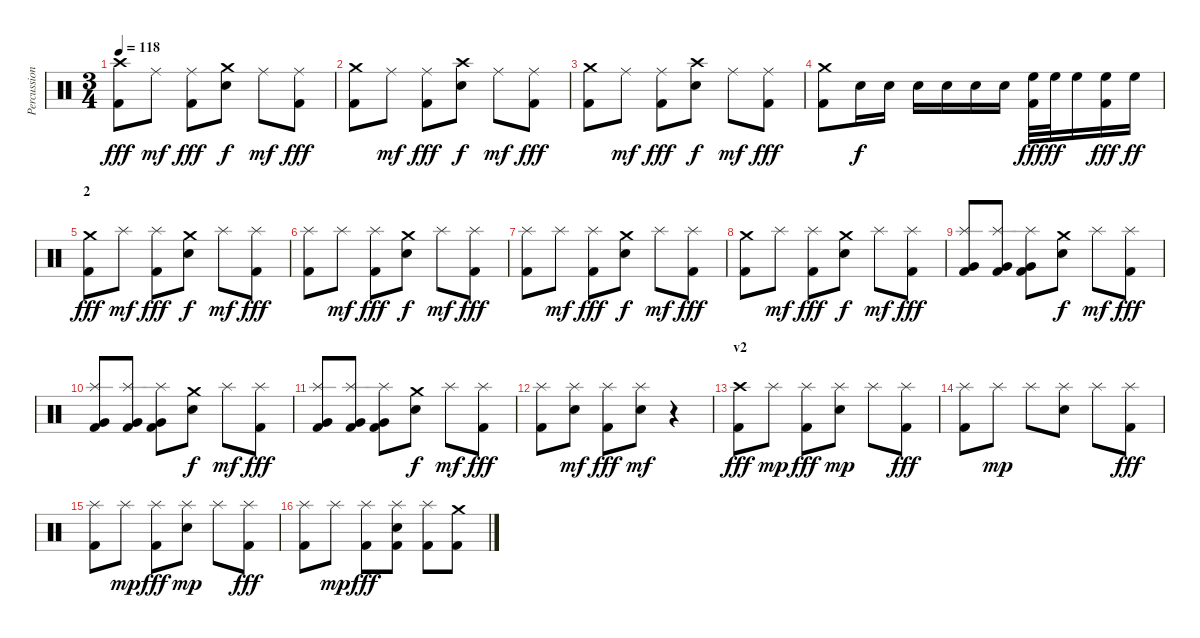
\track ("Percussion" "Percussion") {instrument percussion}
\staff {score}
\articulation defaults
\ts (3 4)
\tempo 118
\clef neutral
\ks c
("Crash high (hit)" "Kick (hit) 2").8{dy fff} "Ride (middle)".8{dy mf} ("Ride (middle)" "Kick (hit) 2").8{dy fff} ("Crash medium (hit)" "Electric Snare (hit)").8{dy f} "Ride (middle)".8{dy mf} ("Ride (middle)" "Kick (hit) 2").8{dy fff} |
("Crash medium (hit)" "Kick (hit) 2").8 "Ride (middle)".8{dy mf} ("Ride (middle)" "Kick (hit) 2").8{dy fff} ("Crash high (hit)" "Electric Snare (hit)").8{dy f} "Ride (middle)".8{dy mf} ("Ride (middle)" "Kick (hit) 2").8{dy fff} |
("Crash medium (hit)" "Kick (hit) 2").8 "Ride (middle)".8{dy mf} ("Ride (middle)" "Kick (hit) 2").8{dy fff} ("Crash high (hit)" "Electric Snare (hit)").8{dy f} "Ride (middle)".8{dy mf} ("Ride (middle)" "Kick (hit) 2").8{dy fff} |
("Crash medium (hit)" "Kick (hit) 2").8 "Electric Snare (hit)".16{dy f} "Electric Snare (hit)".16 "Electric Snare (hit)".16 "Electric Snare (hit)".16 "Electric Snare (hit)".16 "Electric Snare (hit)".16 ("High Floor Tom (hit)" "Kick (hit) 2").32{dy fff} "High Floor Tom (hit)".32{dy ff} "High Floor Tom (hit)".16 ("High Floor Tom (hit)" "Kick (hit) 2").16{dy fff} "High Floor Tom (hit)".16{dy ff} |
\section ("" "2")
("Crash medium (hit)" "Kick (hit) 2").8{dy fff} "Splash (hit)".8{dy mf} ("Splash (hit)" "Kick (hit) 2").8{dy fff} ("Crash medium (hit)" "Electric Snare (hit)").8{dy f} "Splash (hit)".8{dy mf} ("Splash (hit)" "Kick (hit) 2").8{dy fff} |
("Splash (hit)" "Kick (hit) 2").8 "Splash (hit)".8{dy mf} ("Splash (hit)" "Kick (hit) 2").8{dy fff} ("Crash medium (hit)" "Electric Snare (hit)").8{dy f} "Splash (hit)".8{dy mf} ("Splash (hit)" "Kick (hit) 2").8{dy fff} |
("Splash (hit)" "Kick (hit) 2").8 "Splash (hit)".8{dy mf} ("Splash (hit)" "Kick (hit) 2").8{dy fff} ("Crash medium (hit)" "Electric Snare (hit)").8{dy f} "Splash (hit)".8{dy mf} ("Splash (hit)" "Kick (hit) 2").8{dy fff} |
("Crash medium (hit)" "Kick (hit) 2").8 "Splash (hit)".8{dy mf} ("Splash (hit)" "Kick (hit) 2").8{dy fff} ("Crash medium (hit)" "Electric Snare (hit)").8{dy f} "Splash (hit)".8{dy mf} ("Splash (hit)" "Kick (hit) 2").8{dy fff} |
("Splash (hit)" "Very Low Tom (hit)" "Kick (hit) 2").8 ("Splash (hit)" "Very Low Tom (hit)" "Kick (hit) 2").8 ("Splash (hit)" "Very Low Tom (hit)" "Kick (hit) 2").8 ("Crash medium (hit)" "Electric Snare (hit)").8{dy f} "Splash (hit)".8{dy mf} ("Splash (hit)" "Kick (hit) 2").8{dy fff} |
("Splash (hit)" "Very Low Tom (hit)" "Kick (hit) 2").8 ("Splash (hit)" "Very Low Tom (hit)" "Kick (hit) 2").8 ("Splash (hit)" "Very Low Tom (hit)" "Kick (hit) 2").8 ("Crash medium (hit)" "Electric Snare (hit)").8{dy f} "Splash (hit)".8{dy mf} ("Splash (hit)" "Kick (hit) 2").8{dy fff} |
("Splash (hit)" "Very Low Tom (hit)" "Kick (hit) 2").8 ("Splash (hit)" "Very Low Tom (hit)" "Kick (hit) 2").8 ("Splash (hit)" "Very Low Tom (hit)" "Kick (hit) 2").8 ("Crash medium (hit)" "Electric Snare (hit)").8{dy f} "Splash (hit)".8{dy mf} ("Splash (hit)" "Kick (hit) 2").8{dy fff} |
("Splash (hit)" "Kick (hit) 2").8 ("Splash (hit)" "Electric Snare (hit)").8{dy mf} ("Splash (hit)" "Kick (hit) 2").8{dy fff} ("Splash (hit)" "Electric Snare (hit)").8{dy mf} r.4 |
\section ("" "v2")
("Crash high (hit)" "Kick (hit) 2").8{dy fff} "Splash (hit)".8{dy mp} ("Splash (hit)" "Kick (hit) 2").8{dy fff} ("Splash (hit)" "Electric Snare (hit)").8{dy mp} "Splash (hit)".8 ("Splash (hit)" "Kick (hit) 2").8{dy fff} |
("Splash (hit)" "Kick (hit) 2").8 "Splash (hit)".8{dy mp} "Splash (hit)".8 ("Splash (hit)" "Electric Snare (hit)").8 "Splash (hit)".8 ("Splash (hit)" "Kick (hit) 2").8{dy fff} |
("Splash (hit)" "Kick (hit) 2").8 "Splash (hit)".8{dy mp} ("Splash (hit)" "Kick (hit) 2").8{dy fff} ("Splash (hit)" "Electric Snare (hit)").8{dy mp} "Splash (hit)".8 ("Splash (hit)" "Kick (hit) 2").8{dy fff} |
("Splash (hit)" "Kick (hit) 2").8 "Splash (hit)".8{dy mp} ("Splash (hit)" "Kick (hit) 2").8{dy fff} ("Splash (hit)" "Electric Snare (hit)" "Kick (hit) 2").8 ("Splash (hit)" "Kick (hit) 2").8 ("Crash medium (hit)" "Kick (hit) 2").8
